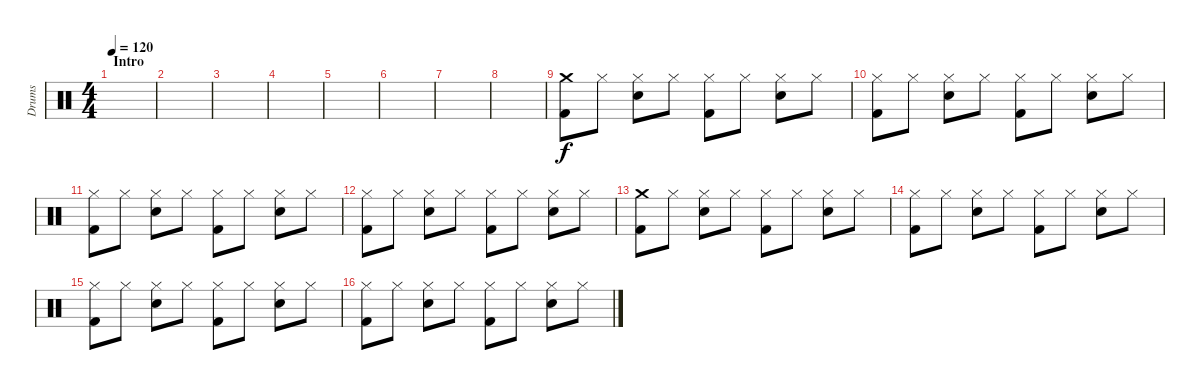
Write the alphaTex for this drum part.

\track ("Drums" "Drums") {instrument percussion}
\staff {score}
\articulation defaults
\ts (4 4)
\section ("" "Intro")
\tempo 120
\clef neutral
\ks c
|
|
|
|
|
|
|
|
("Crash medium (hit)" "Kick (hit) 2").8 "Hi-Hat (closed)".8 ("Hi-Hat (closed)" "Electric Snare (hit)").8 "Hi-Hat (closed)".8 ("Hi-Hat (closed)" "Kick (hit) 2").8 "Hi-Hat (closed)".8 ("Hi-Hat (closed)" "Electric Snare (hit)").8 "Hi-Hat (closed)".8 |
("Hi-Hat (closed)" "Kick (hit) 2").8 "Hi-Hat (closed)".8 ("Hi-Hat (closed)" "Electric Snare (hit)").8 "Hi-Hat (closed)".8 ("Hi-Hat (closed)" "Kick (hit) 2").8 "Hi-Hat (closed)".8 ("Hi-Hat (closed)" "Electric Snare (hit)").8 "Hi-Hat (closed)".8 |
("Hi-Hat (closed)" "Kick (hit) 2").8 "Hi-Hat (closed)".8 ("Hi-Hat (closed)" "Electric Snare (hit)").8 "Hi-Hat (closed)".8 ("Hi-Hat (closed)" "Kick (hit) 2").8 "Hi-Hat (closed)".8 ("Hi-Hat (closed)" "Electric Snare (hit)").8 "Hi-Hat (closed)".8 |
("Hi-Hat (closed)" "Kick (hit) 2").8 "Hi-Hat (closed)".8 ("Hi-Hat (closed)" "Electric Snare (hit)").8 "Hi-Hat (closed)".8 ("Hi-Hat (closed)" "Kick (hit) 2").8 "Hi-Hat (closed)".8 ("Hi-Hat (closed)" "Electric Snare (hit)").8 "Hi-Hat (closed)".8 |
("Crash medium (hit)" "Kick (hit) 2").8 "Hi-Hat (closed)".8 ("Hi-Hat (closed)" "Electric Snare (hit)").8 "Hi-Hat (closed)".8 ("Hi-Hat (closed)" "Kick (hit) 2").8 "Hi-Hat (closed)".8 ("Hi-Hat (closed)" "Electric Snare (hit)").8 "Hi-Hat (closed)".8 |
("Hi-Hat (closed)" "Kick (hit) 2").8 "Hi-Hat (closed)".8 ("Hi-Hat (closed)" "Electric Snare (hit)").8 "Hi-Hat (closed)".8 ("Hi-Hat (closed)" "Kick (hit) 2").8 "Hi-Hat (closed)".8 ("Hi-Hat (closed)" "Electric Snare (hit)").8 "Hi-Hat (closed)".8 |
("Hi-Hat (closed)" "Kick (hit) 2").8 "Hi-Hat (closed)".8 ("Hi-Hat (closed)" "Electric Snare (hit)").8 "Hi-Hat (closed)".8 ("Hi-Hat (closed)" "Kick (hit) 2").8 "Hi-Hat (closed)".8 ("Hi-Hat (closed)" "Electric Snare (hit)").8 "Hi-Hat (closed)".8 |
("Hi-Hat (closed)" "Kick (hit) 2").8 "Hi-Hat (closed)".8 ("Hi-Hat (closed)" "Electric Snare (hit)").8 "Hi-Hat (closed)".8 ("Hi-Hat (closed)" "Kick (hit) 2").8 "Hi-Hat (closed)".8 ("Hi-Hat (closed)" "Electric Snare (hit)").8 "Hi-Hat (closed)".8
